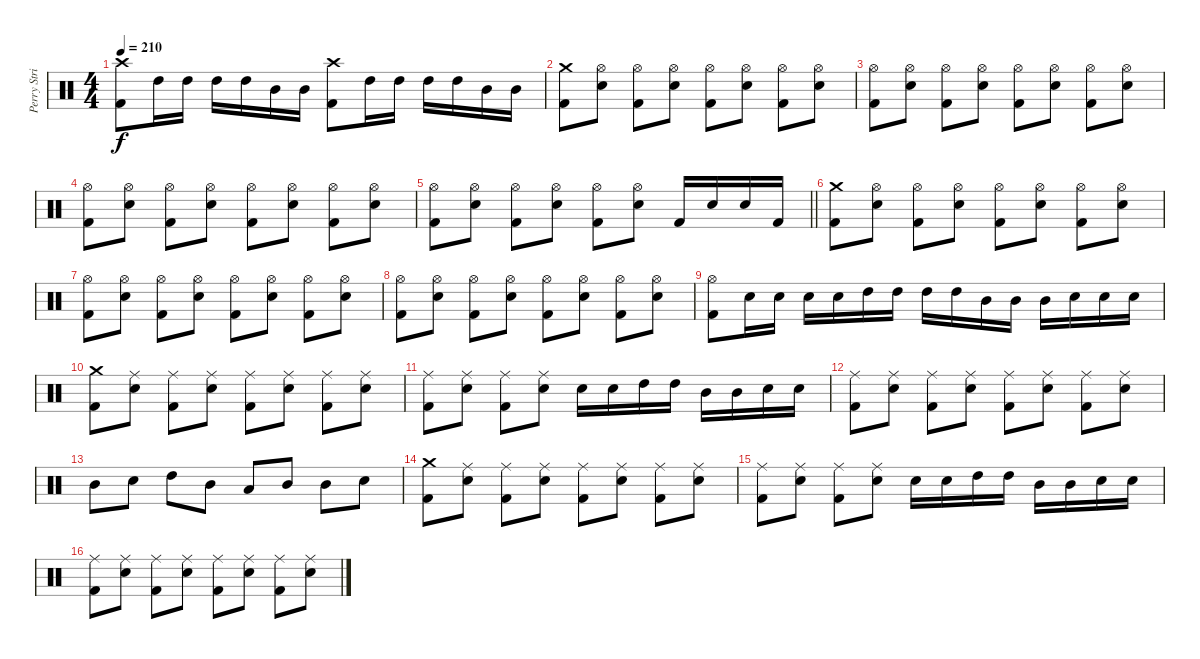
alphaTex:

\track ("Perry Strickland" "Perry Stri") {instrument percussion}
\staff {score}
\articulation defaults
\ts (4 4)
\tempo 210
\clef neutral
\ks c
("Crash high (hit)" "Kick (hit) 2").8{dy f} "High Tom (hit)".16 "High Tom (hit)".16 "High Tom (hit)".16 "High Tom (hit)".16 "Mid Tom (hit)".16 "Mid Tom (hit)".16 ("Crash high (hit)" "Kick (hit) 2").8 "High Tom (hit)".16 "High Tom (hit)".16 "High Tom (hit)".16 "High Tom (hit)".16 "Mid Tom (hit)".16 "Mid Tom (hit)".16 |
("Crash medium (hit)" "Kick (hit) 2").8 ("Hi-Hat (open)" "Electric Snare (hit)").8 ("Hi-Hat (open)" "Kick (hit) 2").8 ("Hi-Hat (open)" "Electric Snare (hit)").8 ("Hi-Hat (open)" "Kick (hit) 2").8 ("Hi-Hat (open)" "Electric Snare (hit)").8 ("Hi-Hat (open)" "Kick (hit) 2").8 ("Hi-Hat (open)" "Electric Snare (hit)").8 |
("Hi-Hat (open)" "Kick (hit) 2").8 ("Hi-Hat (open)" "Electric Snare (hit)").8 ("Hi-Hat (open)" "Kick (hit) 2").8 ("Hi-Hat (open)" "Electric Snare (hit)").8 ("Hi-Hat (open)" "Kick (hit) 2").8 ("Hi-Hat (open)" "Electric Snare (hit)").8 ("Hi-Hat (open)" "Kick (hit) 2").8 ("Hi-Hat (open)" "Electric Snare (hit)").8 |
("Hi-Hat (open)" "Kick (hit) 2").8 ("Hi-Hat (open)" "Electric Snare (hit)").8 ("Hi-Hat (open)" "Kick (hit) 2").8 ("Hi-Hat (open)" "Electric Snare (hit)").8 ("Hi-Hat (open)" "Kick (hit) 2").8 ("Hi-Hat (open)" "Electric Snare (hit)").8 ("Hi-Hat (open)" "Kick (hit) 2").8 ("Hi-Hat (open)" "Electric Snare (hit)").8 |
\barLineRight lightlight
("Hi-Hat (open)" "Kick (hit) 2").8 ("Hi-Hat (open)" "Electric Snare (hit)").8 ("Hi-Hat (open)" "Kick (hit) 2").8 ("Hi-Hat (open)" "Electric Snare (hit)").8 ("Hi-Hat (open)" "Kick (hit) 2").8 ("Hi-Hat (open)" "Electric Snare (hit)").8 "Kick (hit) 2".16 "Electric Snare (hit)".16 "Electric Snare (hit)".16 "Kick (hit) 2".16 |
("Crash medium (hit)" "Kick (hit) 2").8 ("Hi-Hat (open)" "Electric Snare (hit)").8 ("Hi-Hat (open)" "Kick (hit) 2").8 ("Hi-Hat (open)" "Electric Snare (hit)").8 ("Hi-Hat (open)" "Kick (hit) 2").8 ("Hi-Hat (open)" "Electric Snare (hit)").8 ("Hi-Hat (open)" "Kick (hit) 2").8 ("Hi-Hat (open)" "Electric Snare (hit)").8 |
("Hi-Hat (open)" "Kick (hit) 2").8 ("Hi-Hat (open)" "Electric Snare (hit)").8 ("Hi-Hat (open)" "Kick (hit) 2").8 ("Hi-Hat (open)" "Electric Snare (hit)").8 ("Hi-Hat (open)" "Kick (hit) 2").8 ("Hi-Hat (open)" "Electric Snare (hit)").8 ("Hi-Hat (open)" "Kick (hit) 2").8 ("Hi-Hat (open)" "Electric Snare (hit)").8 |
("Hi-Hat (open)" "Kick (hit) 2").8 ("Hi-Hat (open)" "Electric Snare (hit)").8 ("Hi-Hat (open)" "Kick (hit) 2").8 ("Hi-Hat (open)" "Electric Snare (hit)").8 ("Hi-Hat (open)" "Kick (hit) 2").8 ("Hi-Hat (open)" "Electric Snare (hit)").8 ("Hi-Hat (open)" "Kick (hit) 2").8 ("Hi-Hat (open)" "Electric Snare (hit)").8 |
("Hi-Hat (open)" "Kick (hit) 2").8 "Electric Snare (hit)".16 "Electric Snare (hit)".16 "Electric Snare (hit)".16 "Electric Snare (hit)".16 "High Tom (hit)".16 "High Tom (hit)".16 "High Tom (hit)".16 "High Tom (hit)".16 "Mid Tom (hit)".16 "Mid Tom (hit)".16 "Mid Tom (hit)".16 "Electric Snare (hit)".16 "Electric Snare (hit)".16 "Electric Snare (hit)".16 |
("Crash medium (hit)" "Kick (hit) 2").8 ("Ride (middle)" "Electric Snare (hit)").8 ("Ride (middle)" "Kick (hit) 2").8 ("Ride (middle)" "Electric Snare (hit)").8 ("Ride (middle)" "Kick (hit) 2").8 ("Ride (middle)" "Electric Snare (hit)").8 ("Ride (middle)" "Kick (hit) 2").8 ("Ride (middle)" "Electric Snare (hit)").8 |
("Ride (middle)" "Kick (hit) 2").8 ("Ride (middle)" "Electric Snare (hit)").8 ("Ride (middle)" "Kick (hit) 2").8 ("Ride (middle)" "Electric Snare (hit)").8 "Electric Snare (hit)".16 "Electric Snare (hit)".16 "High Tom (hit)".16 "High Tom (hit)".16 "Mid Tom (hit)".16 "Mid Tom (hit)".16 "Electric Snare (hit)".16 "Electric Snare (hit)".16 |
("Ride (middle)" "Kick (hit) 2").8 ("Ride (middle)" "Electric Snare (hit)").8 ("Ride (middle)" "Kick (hit) 2").8 ("Ride (middle)" "Electric Snare (hit)").8 ("Ride (middle)" "Kick (hit) 2").8 ("Ride (middle)" "Electric Snare (hit)").8 ("Ride (middle)" "Kick (hit) 2").8 ("Ride (middle)" "Electric Snare (hit)").8 |
"Mid Tom (hit)".8 "Electric Snare (hit)".8 "High Tom (hit)".8 "Mid Tom (hit)".8 "Low Tom (hit)".8 "Mid Tom (hit)".8 "Mid Tom (hit)".8 "Electric Snare (hit)".8 |
("Crash medium (hit)" "Kick (hit) 2").8 ("Ride (middle)" "Electric Snare (hit)").8 ("Ride (middle)" "Kick (hit) 2").8 ("Ride (middle)" "Electric Snare (hit)").8 ("Ride (middle)" "Kick (hit) 2").8 ("Ride (middle)" "Electric Snare (hit)").8 ("Ride (middle)" "Kick (hit) 2").8 ("Ride (middle)" "Electric Snare (hit)").8 |
("Ride (middle)" "Kick (hit) 2").8 ("Ride (middle)" "Electric Snare (hit)").8 ("Ride (middle)" "Kick (hit) 2").8 ("Ride (middle)" "Electric Snare (hit)").8 "Electric Snare (hit)".16 "Electric Snare (hit)".16 "High Tom (hit)".16 "High Tom (hit)".16 "Mid Tom (hit)".16 "Mid Tom (hit)".16 "Electric Snare (hit)".16 "Electric Snare (hit)".16 |
("Ride (middle)" "Kick (hit) 2").8 ("Ride (middle)" "Electric Snare (hit)").8 ("Ride (middle)" "Kick (hit) 2").8 ("Ride (middle)" "Electric Snare (hit)").8 ("Ride (middle)" "Kick (hit) 2").8 ("Ride (middle)" "Electric Snare (hit)").8 ("Ride (middle)" "Kick (hit) 2").8 ("Ride (middle)" "Electric Snare (hit)").8
